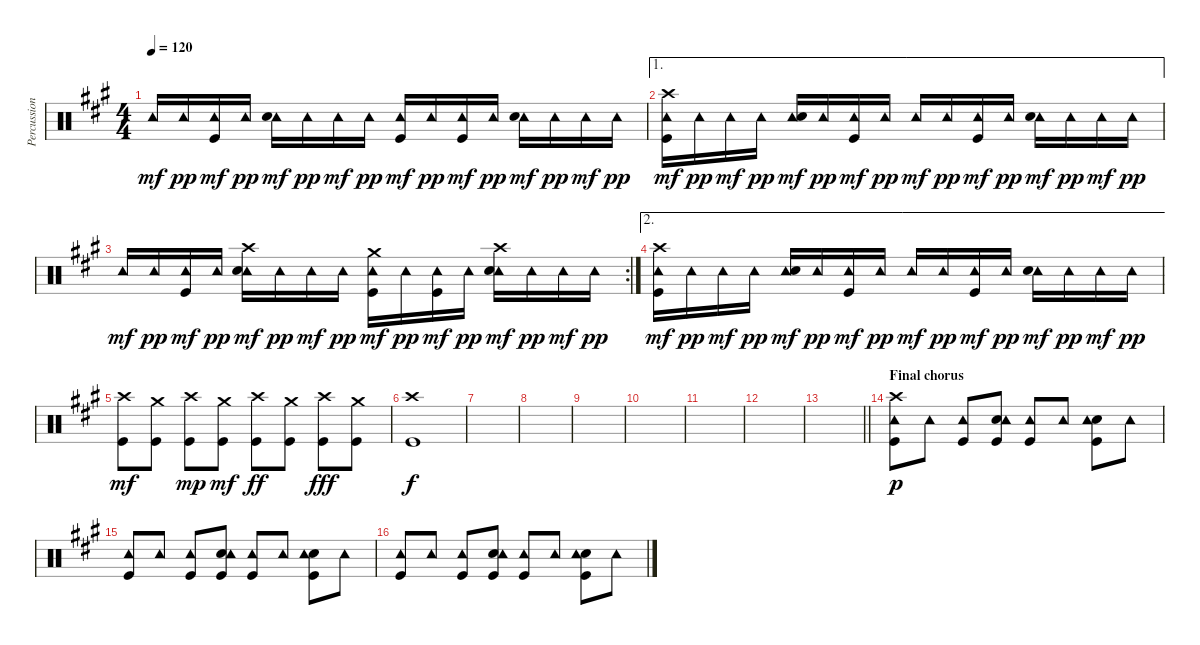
\track ("Percussion" "Percussion") {instrument percussion}
\staff {score}
\articulation defaults
\ts (4 4)
\tempo 120
\clef neutral
\ks a "Tambourine (hit)".16{dy mf} "Tambourine (hit)".16{dy pp}
("Tambourine (hit)" "Kick (hit)").16{dy mf} "Tambourine (hit)".16{dy pp} ("Tambourine (hit)" "Electric Snare (hit)").16{dy mf} "Tambourine (hit)".16{dy pp} "Tambourine (hit)".16{dy mf} "Tambourine (hit)".16{dy pp} ("Tambourine (hit)" "Kick (hit)").16{dy mf} "Tambourine (hit)".16{dy pp} ("Tambourine (hit)" "Kick (hit)").16{dy mf} "Tambourine (hit)".16{dy pp} ("Tambourine (hit)" "Electric Snare (hit)").16{dy mf} "Tambourine (hit)".16{dy pp} "Tambourine (hit)".16{dy mf} "Tambourine (hit)".16{dy pp} |
\ae 1
("Crash high (hit)" "Tambourine (hit)" "Kick (hit)").16{dy mf} "Tambourine (hit)".16{dy pp} "Tambourine (hit)".16{dy mf} "Tambourine (hit)".16{dy pp} ("Tambourine (hit)" "Electric Snare (hit)").16{dy mf} "Tambourine (hit)".16{dy pp} ("Tambourine (hit)" "Kick (hit)").16{dy mf} "Tambourine (hit)".16{dy pp} "Tambourine (hit)".16{dy mf} "Tambourine (hit)".16{dy pp} ("Tambourine (hit)" "Kick (hit)").16{dy mf} "Tambourine (hit)".16{dy pp} ("Tambourine (hit)" "Electric Snare (hit)").16{dy mf} "Tambourine (hit)".16{dy pp} "Tambourine (hit)".16{dy mf} "Tambourine (hit)".16{dy pp} |
\rc 2 "Tambourine (hit)".16{dy mf} "Tambourine (hit)".16{dy pp}
("Tambourine (hit)" "Kick (hit)").16{dy mf} "Tambourine (hit)".16{dy pp} ("Crash high (hit)" "Tambourine (hit)" "Electric Snare (hit)").16{dy mf} "Tambourine (hit)".16{dy pp} "Tambourine (hit)".16{dy mf} "Tambourine (hit)".16{dy pp} ("Crash medium (hit)" "Tambourine (hit)" "Kick (hit)").16{dy mf} "Tambourine (hit)".16{dy pp} ("Tambourine (hit)" "Kick (hit)").16{dy mf} "Tambourine (hit)".16{dy pp} ("Crash high (hit)" "Tambourine (hit)" "Electric Snare (hit)").16{dy mf} "Tambourine (hit)".16{dy pp} "Tambourine (hit)".16{dy mf} "Tambourine (hit)".16{dy pp} |
\ae 2
("Crash high (hit)" "Tambourine (hit)" "Kick (hit)").16{dy mf} "Tambourine (hit)".16{dy pp} "Tambourine (hit)".16{dy mf} "Tambourine (hit)".16{dy pp} ("Tambourine (hit)" "Electric Snare (hit)").16{dy mf} "Tambourine (hit)".16{dy pp} ("Tambourine (hit)" "Kick (hit)").16{dy mf} "Tambourine (hit)".16{dy pp} "Tambourine (hit)".16{dy mf} "Tambourine (hit)".16{dy pp} ("Tambourine (hit)" "Kick (hit)").16{dy mf} "Tambourine (hit)".16{dy pp} ("Tambourine (hit)" "Electric Snare (hit)").16{dy mf} "Tambourine (hit)".16{dy pp} "Tambourine (hit)".16{dy mf} "Tambourine (hit)".16{dy pp} |
("Crash high (hit)" "Kick (hit)").8{dy mf} ("Crash medium (hit)" "Kick (hit)").8 ("Crash high (hit)" "Kick (hit)").8{dy mp} ("Crash medium (hit)" "Kick (hit)").8{dy mf} ("Crash high (hit)" "Kick (hit)").8{dy ff} ("Crash medium (hit)" "Kick (hit)").8 ("Crash high (hit)" "Kick (hit)").8{dy fff} ("Crash medium (hit)" "Kick (hit)").8 |
("Crash high (hit)" "Kick (hit)").1{dy f} |
|
|
|
|
|
|
\barLineRight lightlight
|
\section ("" "Final chorus")
("Kick (hit)" "Crash high (hit)" "Tambourine (hit)").8{dy p} "Tambourine (hit)".8 ("Kick (hit)" "Tambourine (hit)").8 ("Kick (hit)" "Electric Snare (hit)" "Tambourine (hit)").8 ("Kick (hit)" "Tambourine (hit)").8 "Tambourine (hit)".8 ("Kick (hit)" "Electric Snare (hit)" "Tambourine (hit)").8 "Tambourine (hit)".8 |
("Kick (hit)" "Tambourine (hit)").8 "Tambourine (hit)".8 ("Kick (hit)" "Tambourine (hit)").8 ("Kick (hit)" "Electric Snare (hit)" "Tambourine (hit)").8 ("Kick (hit)" "Tambourine (hit)").8 "Tambourine (hit)".8 ("Kick (hit)" "Electric Snare (hit)" "Tambourine (hit)").8 "Tambourine (hit)".8 |
("Kick (hit)" "Tambourine (hit)").8 "Tambourine (hit)".8 ("Kick (hit)" "Tambourine (hit)").8 ("Kick (hit)" "Electric Snare (hit)" "Tambourine (hit)").8 ("Kick (hit)" "Tambourine (hit)").8 "Tambourine (hit)".8 ("Kick (hit)" "Electric Snare (hit)" "Tambourine (hit)").8 "Tambourine (hit)".8
